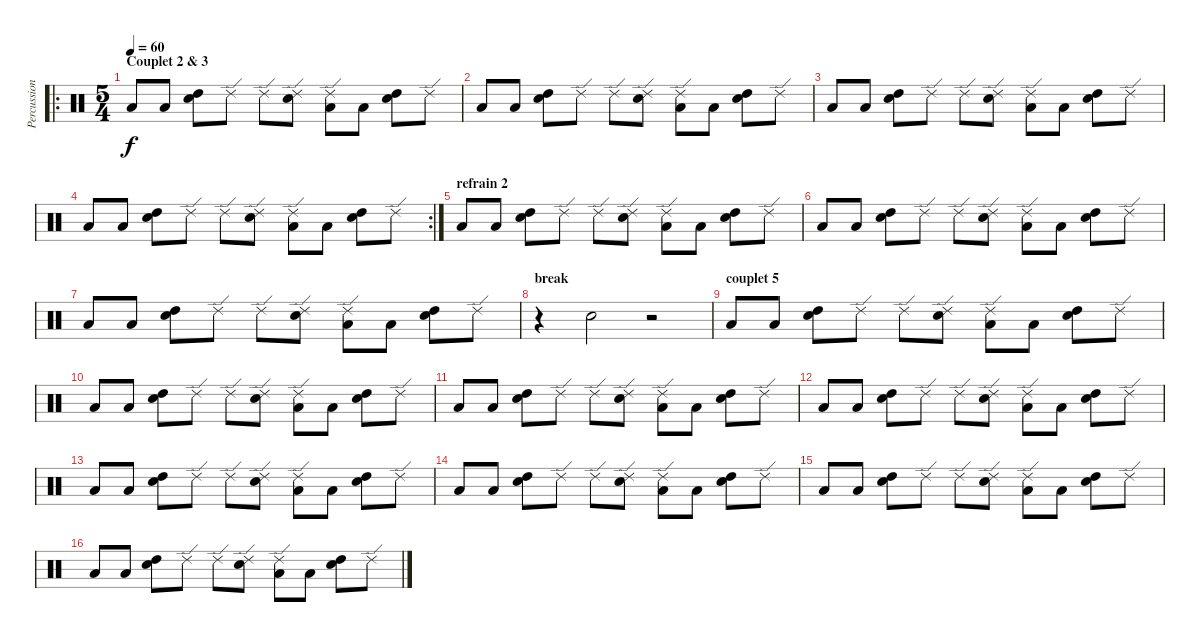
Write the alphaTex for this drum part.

\track ("Percussions" "Percussion") {instrument percussion}
\staff {score}
\articulation defaults
\ro
\ts (5 4)
\section ("" "Couplet 2 & 3")
\tempo 60
\clef neutral
\ks c "Low Floor Tom (hit)".8{dy f} "Low Floor Tom (hit)".8
("Electric Snare (hit)" "High Tom (hit)").8 "Ride (edge) 2".8 "Ride (edge) 2".8 ("Ride (edge) 2" "Electric Snare (hit)").8 ("Ride (edge) 2" "Low Floor Tom (hit)").8 "Low Floor Tom (hit)".8 ("Electric Snare (hit)" "High Tom (hit)").8 "Ride (edge) 2".8 |
"Low Floor Tom (hit)".8 "Low Floor Tom (hit)".8 ("Electric Snare (hit)" "High Tom (hit)").8 "Ride (edge) 2".8 "Ride (edge) 2".8 ("Ride (edge) 2" "Electric Snare (hit)").8 ("Ride (edge) 2" "Low Floor Tom (hit)").8 "Low Floor Tom (hit)".8 ("Electric Snare (hit)" "High Tom (hit)").8 "Ride (edge) 2".8 |
"Low Floor Tom (hit)".8 "Low Floor Tom (hit)".8 ("Electric Snare (hit)" "High Tom (hit)").8 "Ride (edge) 2".8 "Ride (edge) 2".8 ("Ride (edge) 2" "Electric Snare (hit)").8 ("Ride (edge) 2" "Low Floor Tom (hit)").8 "Low Floor Tom (hit)".8 ("Electric Snare (hit)" "High Tom (hit)").8 "Ride (edge) 2".8 |
\rc 2 "Low Floor Tom (hit)".8 "Low Floor Tom (hit)".8
("Electric Snare (hit)" "High Tom (hit)").8 "Ride (edge) 2".8 "Ride (edge) 2".8 ("Ride (edge) 2" "Electric Snare (hit)").8 ("Ride (edge) 2" "Low Floor Tom (hit)").8 "Low Floor Tom (hit)".8 ("Electric Snare (hit)" "High Tom (hit)").8 "Ride (edge) 2".8 |
\section ("" "refrain 2")
"Low Floor Tom (hit)".8 "Low Floor Tom (hit)".8 ("Electric Snare (hit)" "High Tom (hit)").8 "Ride (edge) 2".8 "Ride (edge) 2".8 ("Ride (edge) 2" "Electric Snare (hit)").8 ("Ride (edge) 2" "Low Floor Tom (hit)").8 "Low Floor Tom (hit)".8 ("Electric Snare (hit)" "High Tom (hit)").8 "Ride (edge) 2".8 |
"Low Floor Tom (hit)".8 "Low Floor Tom (hit)".8 ("Electric Snare (hit)" "High Tom (hit)").8 "Ride (edge) 2".8 "Ride (edge) 2".8 ("Ride (edge) 2" "Electric Snare (hit)").8 ("Ride (edge) 2" "Low Floor Tom (hit)").8 "Low Floor Tom (hit)".8 ("Electric Snare (hit)" "High Tom (hit)").8 "Ride (edge) 2".8 |
"Low Floor Tom (hit)".8 "Low Floor Tom (hit)".8 ("Electric Snare (hit)" "High Tom (hit)").8 "Ride (edge) 2".8 "Ride (edge) 2".8 ("Ride (edge) 2" "Electric Snare (hit)").8 ("Ride (edge) 2" "Low Floor Tom (hit)").8 "Low Floor Tom (hit)".8 ("Electric Snare (hit)" "High Tom (hit)").8 "Ride (edge) 2".8 |
\section ("" "break")
r.4 "Electric Snare (hit)".2 r.2 |
\section ("" "couplet 5")
"Low Floor Tom (hit)".8 "Low Floor Tom (hit)".8 ("Electric Snare (hit)" "High Tom (hit)").8 "Ride (edge) 2".8 "Ride (edge) 2".8 ("Ride (edge) 2" "Electric Snare (hit)").8 ("Ride (edge) 2" "Low Floor Tom (hit)").8 "Low Floor Tom (hit)".8 ("Electric Snare (hit)" "High Tom (hit)").8 "Ride (edge) 2".8 |
"Low Floor Tom (hit)".8 "Low Floor Tom (hit)".8 ("Electric Snare (hit)" "High Tom (hit)").8 "Ride (edge) 2".8 "Ride (edge) 2".8 ("Ride (edge) 2" "Electric Snare (hit)").8 ("Ride (edge) 2" "Low Floor Tom (hit)").8 "Low Floor Tom (hit)".8 ("Electric Snare (hit)" "High Tom (hit)").8 "Ride (edge) 2".8 |
"Low Floor Tom (hit)".8 "Low Floor Tom (hit)".8 ("Electric Snare (hit)" "High Tom (hit)").8 "Ride (edge) 2".8 "Ride (edge) 2".8 ("Ride (edge) 2" "Electric Snare (hit)").8 ("Ride (edge) 2" "Low Floor Tom (hit)").8 "Low Floor Tom (hit)".8 ("Electric Snare (hit)" "High Tom (hit)").8 "Ride (edge) 2".8 |
"Low Floor Tom (hit)".8 "Low Floor Tom (hit)".8 ("Electric Snare (hit)" "High Tom (hit)").8 "Ride (edge) 2".8 "Ride (edge) 2".8 ("Ride (edge) 2" "Electric Snare (hit)").8 ("Ride (edge) 2" "Low Floor Tom (hit)").8 "Low Floor Tom (hit)".8 ("Electric Snare (hit)" "High Tom (hit)").8 "Ride (edge) 2".8 |
"Low Floor Tom (hit)".8 "Low Floor Tom (hit)".8 ("Electric Snare (hit)" "High Tom (hit)").8 "Ride (edge) 2".8 "Ride (edge) 2".8 ("Ride (edge) 2" "Electric Snare (hit)").8 ("Ride (edge) 2" "Low Floor Tom (hit)").8 "Low Floor Tom (hit)".8 ("Electric Snare (hit)" "High Tom (hit)").8 "Ride (edge) 2".8 |
"Low Floor Tom (hit)".8 "Low Floor Tom (hit)".8 ("Electric Snare (hit)" "High Tom (hit)").8 "Ride (edge) 2".8 "Ride (edge) 2".8 ("Ride (edge) 2" "Electric Snare (hit)").8 ("Ride (edge) 2" "Low Floor Tom (hit)").8 "Low Floor Tom (hit)".8 ("Electric Snare (hit)" "High Tom (hit)").8 "Ride (edge) 2".8 |
"Low Floor Tom (hit)".8 "Low Floor Tom (hit)".8 ("Electric Snare (hit)" "High Tom (hit)").8 "Ride (edge) 2".8 "Ride (edge) 2".8 ("Ride (edge) 2" "Electric Snare (hit)").8 ("Ride (edge) 2" "Low Floor Tom (hit)").8 "Low Floor Tom (hit)".8 ("Electric Snare (hit)" "High Tom (hit)").8 "Ride (edge) 2".8 |
"Low Floor Tom (hit)".8 "Low Floor Tom (hit)".8 ("Electric Snare (hit)" "High Tom (hit)").8 "Ride (edge) 2".8 "Ride (edge) 2".8 ("Ride (edge) 2" "Electric Snare (hit)").8 ("Ride (edge) 2" "Low Floor Tom (hit)").8 "Low Floor Tom (hit)".8 ("Electric Snare (hit)" "High Tom (hit)").8 "Ride (edge) 2".8
